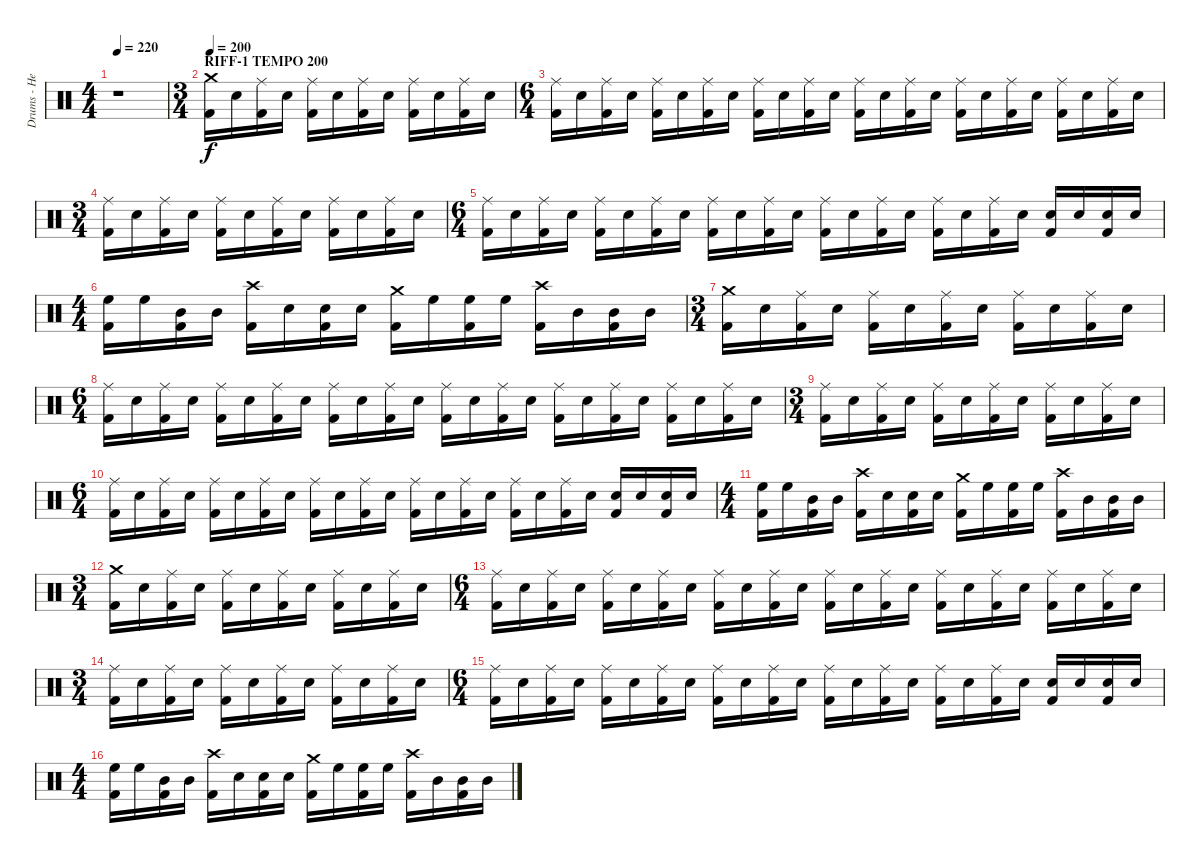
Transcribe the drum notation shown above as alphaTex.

\track ("Drums - Hellhammer" "Drums - He") {instrument percussion}
\staff {score}
\articulation defaults
\ts (4 4)
\tempo 220
\clef neutral
\ks c
r.1{dy f} |
\ts (3 4)
\section ("" "RIFF-1 TEMPO 200")
\tempo 200
("Crash medium (hit)" "Kick (hit) 2").16 "Electric Snare (hit)".16 ("Ride (middle)" "Kick (hit) 2").16 "Electric Snare (hit)".16 ("Ride (middle)" "Kick (hit) 2").16 "Electric Snare (hit)".16 ("Ride (middle)" "Kick (hit) 2").16 "Electric Snare (hit)".16 ("Ride (middle)" "Kick (hit) 2").16 "Electric Snare (hit)".16 ("Ride (middle)" "Kick (hit) 2").16 "Electric Snare (hit)".16 |
\ts (6 4)
("Ride (middle)" "Kick (hit) 2").16 "Electric Snare (hit)".16 ("Ride (middle)" "Kick (hit) 2").16 "Electric Snare (hit)".16 ("Ride (middle)" "Kick (hit) 2").16 "Electric Snare (hit)".16 ("Ride (middle)" "Kick (hit) 2").16 "Electric Snare (hit)".16 ("Ride (middle)" "Kick (hit) 2").16 "Electric Snare (hit)".16 ("Ride (middle)" "Kick (hit) 2").16 "Electric Snare (hit)".16 ("Ride (middle)" "Kick (hit) 2").16 "Electric Snare (hit)".16 ("Ride (middle)" "Kick (hit) 2").16 "Electric Snare (hit)".16 ("Ride (middle)" "Kick (hit) 2").16 "Electric Snare (hit)".16 ("Ride (middle)" "Kick (hit) 2").16 "Electric Snare (hit)".16 ("Ride (middle)" "Kick (hit) 2").16 "Electric Snare (hit)".16 ("Ride (middle)" "Kick (hit) 2").16 "Electric Snare (hit)".16 |
\ts (3 4)
("Ride (middle)" "Kick (hit) 2").16 "Electric Snare (hit)".16 ("Ride (middle)" "Kick (hit) 2").16 "Electric Snare (hit)".16 ("Ride (middle)" "Kick (hit) 2").16 "Electric Snare (hit)".16 ("Ride (middle)" "Kick (hit) 2").16 "Electric Snare (hit)".16 ("Ride (middle)" "Kick (hit) 2").16 "Electric Snare (hit)".16 ("Ride (middle)" "Kick (hit) 2").16 "Electric Snare (hit)".16 |
\ts (6 4)
("Ride (middle)" "Kick (hit) 2").16 "Electric Snare (hit)".16 ("Ride (middle)" "Kick (hit) 2").16 "Electric Snare (hit)".16 ("Ride (middle)" "Kick (hit) 2").16 "Electric Snare (hit)".16 ("Ride (middle)" "Kick (hit) 2").16 "Electric Snare (hit)".16 ("Ride (middle)" "Kick (hit) 2").16 "Electric Snare (hit)".16 ("Ride (middle)" "Kick (hit) 2").16 "Electric Snare (hit)".16 ("Ride (middle)" "Kick (hit) 2").16 "Electric Snare (hit)".16 ("Ride (middle)" "Kick (hit) 2").16 "Electric Snare (hit)".16 ("Ride (middle)" "Kick (hit) 2").16 "Electric Snare (hit)".16 ("Ride (middle)" "Kick (hit) 2").16 "Electric Snare (hit)".16 ("Electric Snare (hit)" "Kick (hit) 2").16 "Electric Snare (hit)".16 ("Electric Snare (hit)" "Kick (hit) 2").16 "Electric Snare (hit)".16 |
\ts (4 4)
("High Floor Tom (hit)" "Kick (hit) 2").16 "High Floor Tom (hit)".16 ("Mid Tom (hit)" "Kick (hit) 2").16 "Mid Tom (hit)".16 ("Crash high (hit)" "Kick (hit) 2").16 "Electric Snare (hit)".16 ("Electric Snare (hit)" "Kick (hit) 2").16 "Electric Snare (hit)".16 ("Crash medium (hit)" "Kick (hit) 2").16 "High Floor Tom (hit)".16 ("High Floor Tom (hit)" "Kick (hit) 2").16 "High Floor Tom (hit)".16 ("Crash high (hit)" "Kick (hit) 2").16 "Mid Tom (hit)".16 ("Mid Tom (hit)" "Kick (hit) 2").16 "Mid Tom (hit)".16 |
\ts (3 4)
("Crash medium (hit)" "Kick (hit) 2").16 "Electric Snare (hit)".16 ("Ride (middle)" "Kick (hit) 2").16 "Electric Snare (hit)".16 ("Ride (middle)" "Kick (hit) 2").16 "Electric Snare (hit)".16 ("Ride (middle)" "Kick (hit) 2").16 "Electric Snare (hit)".16 ("Ride (middle)" "Kick (hit) 2").16 "Electric Snare (hit)".16 ("Ride (middle)" "Kick (hit) 2").16 "Electric Snare (hit)".16 |
\ts (6 4)
("Ride (middle)" "Kick (hit) 2").16 "Electric Snare (hit)".16 ("Ride (middle)" "Kick (hit) 2").16 "Electric Snare (hit)".16 ("Ride (middle)" "Kick (hit) 2").16 "Electric Snare (hit)".16 ("Ride (middle)" "Kick (hit) 2").16 "Electric Snare (hit)".16 ("Ride (middle)" "Kick (hit) 2").16 "Electric Snare (hit)".16 ("Ride (middle)" "Kick (hit) 2").16 "Electric Snare (hit)".16 ("Ride (middle)" "Kick (hit) 2").16 "Electric Snare (hit)".16 ("Ride (middle)" "Kick (hit) 2").16 "Electric Snare (hit)".16 ("Ride (middle)" "Kick (hit) 2").16 "Electric Snare (hit)".16 ("Ride (middle)" "Kick (hit) 2").16 "Electric Snare (hit)".16 ("Ride (middle)" "Kick (hit) 2").16 "Electric Snare (hit)".16 ("Ride (middle)" "Kick (hit) 2").16 "Electric Snare (hit)".16 |
\ts (3 4)
("Ride (middle)" "Kick (hit) 2").16 "Electric Snare (hit)".16 ("Ride (middle)" "Kick (hit) 2").16 "Electric Snare (hit)".16 ("Ride (middle)" "Kick (hit) 2").16 "Electric Snare (hit)".16 ("Ride (middle)" "Kick (hit) 2").16 "Electric Snare (hit)".16 ("Ride (middle)" "Kick (hit) 2").16 "Electric Snare (hit)".16 ("Ride (middle)" "Kick (hit) 2").16 "Electric Snare (hit)".16 |
\ts (6 4)
("Ride (middle)" "Kick (hit) 2").16 "Electric Snare (hit)".16 ("Ride (middle)" "Kick (hit) 2").16 "Electric Snare (hit)".16 ("Ride (middle)" "Kick (hit) 2").16 "Electric Snare (hit)".16 ("Ride (middle)" "Kick (hit) 2").16 "Electric Snare (hit)".16 ("Ride (middle)" "Kick (hit) 2").16 "Electric Snare (hit)".16 ("Ride (middle)" "Kick (hit) 2").16 "Electric Snare (hit)".16 ("Ride (middle)" "Kick (hit) 2").16 "Electric Snare (hit)".16 ("Ride (middle)" "Kick (hit) 2").16 "Electric Snare (hit)".16 ("Ride (middle)" "Kick (hit) 2").16 "Electric Snare (hit)".16 ("Ride (middle)" "Kick (hit) 2").16 "Electric Snare (hit)".16 ("Electric Snare (hit)" "Kick (hit) 2").16 "Electric Snare (hit)".16 ("Electric Snare (hit)" "Kick (hit) 2").16 "Electric Snare (hit)".16 |
\ts (4 4)
("High Floor Tom (hit)" "Kick (hit) 2").16 "High Floor Tom (hit)".16 ("Mid Tom (hit)" "Kick (hit) 2").16 "Mid Tom (hit)".16 ("Crash high (hit)" "Kick (hit) 2").16 "Electric Snare (hit)".16 ("Electric Snare (hit)" "Kick (hit) 2").16 "Electric Snare (hit)".16 ("Crash medium (hit)" "Kick (hit) 2").16 "High Floor Tom (hit)".16 ("High Floor Tom (hit)" "Kick (hit) 2").16 "High Floor Tom (hit)".16 ("Crash high (hit)" "Kick (hit) 2").16 "Mid Tom (hit)".16 ("Mid Tom (hit)" "Kick (hit) 2").16 "Mid Tom (hit)".16 |
\ts (3 4)
("Crash medium (hit)" "Kick (hit) 2").16 "Electric Snare (hit)".16 ("Ride (middle)" "Kick (hit) 2").16 "Electric Snare (hit)".16 ("Ride (middle)" "Kick (hit) 2").16 "Electric Snare (hit)".16 ("Ride (middle)" "Kick (hit) 2").16 "Electric Snare (hit)".16 ("Ride (middle)" "Kick (hit) 2").16 "Electric Snare (hit)".16 ("Ride (middle)" "Kick (hit) 2").16 "Electric Snare (hit)".16 |
\ts (6 4)
("Ride (middle)" "Kick (hit) 2").16 "Electric Snare (hit)".16 ("Ride (middle)" "Kick (hit) 2").16 "Electric Snare (hit)".16 ("Ride (middle)" "Kick (hit) 2").16 "Electric Snare (hit)".16 ("Ride (middle)" "Kick (hit) 2").16 "Electric Snare (hit)".16 ("Ride (middle)" "Kick (hit) 2").16 "Electric Snare (hit)".16 ("Ride (middle)" "Kick (hit) 2").16 "Electric Snare (hit)".16 ("Ride (middle)" "Kick (hit) 2").16 "Electric Snare (hit)".16 ("Ride (middle)" "Kick (hit) 2").16 "Electric Snare (hit)".16 ("Ride (middle)" "Kick (hit) 2").16 "Electric Snare (hit)".16 ("Ride (middle)" "Kick (hit) 2").16 "Electric Snare (hit)".16 ("Ride (middle)" "Kick (hit) 2").16 "Electric Snare (hit)".16 ("Ride (middle)" "Kick (hit) 2").16 "Electric Snare (hit)".16 |
\ts (3 4)
("Ride (middle)" "Kick (hit) 2").16 "Electric Snare (hit)".16 ("Ride (middle)" "Kick (hit) 2").16 "Electric Snare (hit)".16 ("Ride (middle)" "Kick (hit) 2").16 "Electric Snare (hit)".16 ("Ride (middle)" "Kick (hit) 2").16 "Electric Snare (hit)".16 ("Ride (middle)" "Kick (hit) 2").16 "Electric Snare (hit)".16 ("Ride (middle)" "Kick (hit) 2").16 "Electric Snare (hit)".16 |
\ts (6 4)
("Ride (middle)" "Kick (hit) 2").16 "Electric Snare (hit)".16 ("Ride (middle)" "Kick (hit) 2").16 "Electric Snare (hit)".16 ("Ride (middle)" "Kick (hit) 2").16 "Electric Snare (hit)".16 ("Ride (middle)" "Kick (hit) 2").16 "Electric Snare (hit)".16 ("Ride (middle)" "Kick (hit) 2").16 "Electric Snare (hit)".16 ("Ride (middle)" "Kick (hit) 2").16 "Electric Snare (hit)".16 ("Ride (middle)" "Kick (hit) 2").16 "Electric Snare (hit)".16 ("Ride (middle)" "Kick (hit) 2").16 "Electric Snare (hit)".16 ("Ride (middle)" "Kick (hit) 2").16 "Electric Snare (hit)".16 ("Ride (middle)" "Kick (hit) 2").16 "Electric Snare (hit)".16 ("Electric Snare (hit)" "Kick (hit) 2").16 "Electric Snare (hit)".16 ("Electric Snare (hit)" "Kick (hit) 2").16 "Electric Snare (hit)".16 |
\ts (4 4)
("High Floor Tom (hit)" "Kick (hit) 2").16 "High Floor Tom (hit)".16 ("Mid Tom (hit)" "Kick (hit) 2").16 "Mid Tom (hit)".16 ("Crash high (hit)" "Kick (hit) 2").16 "Electric Snare (hit)".16 ("Electric Snare (hit)" "Kick (hit) 2").16 "Electric Snare (hit)".16 ("Crash medium (hit)" "Kick (hit) 2").16 "High Floor Tom (hit)".16 ("High Floor Tom (hit)" "Kick (hit) 2").16 "High Floor Tom (hit)".16 ("Crash high (hit)" "Kick (hit) 2").16 "Mid Tom (hit)".16 ("Mid Tom (hit)" "Kick (hit) 2").16 "Mid Tom (hit)".16
